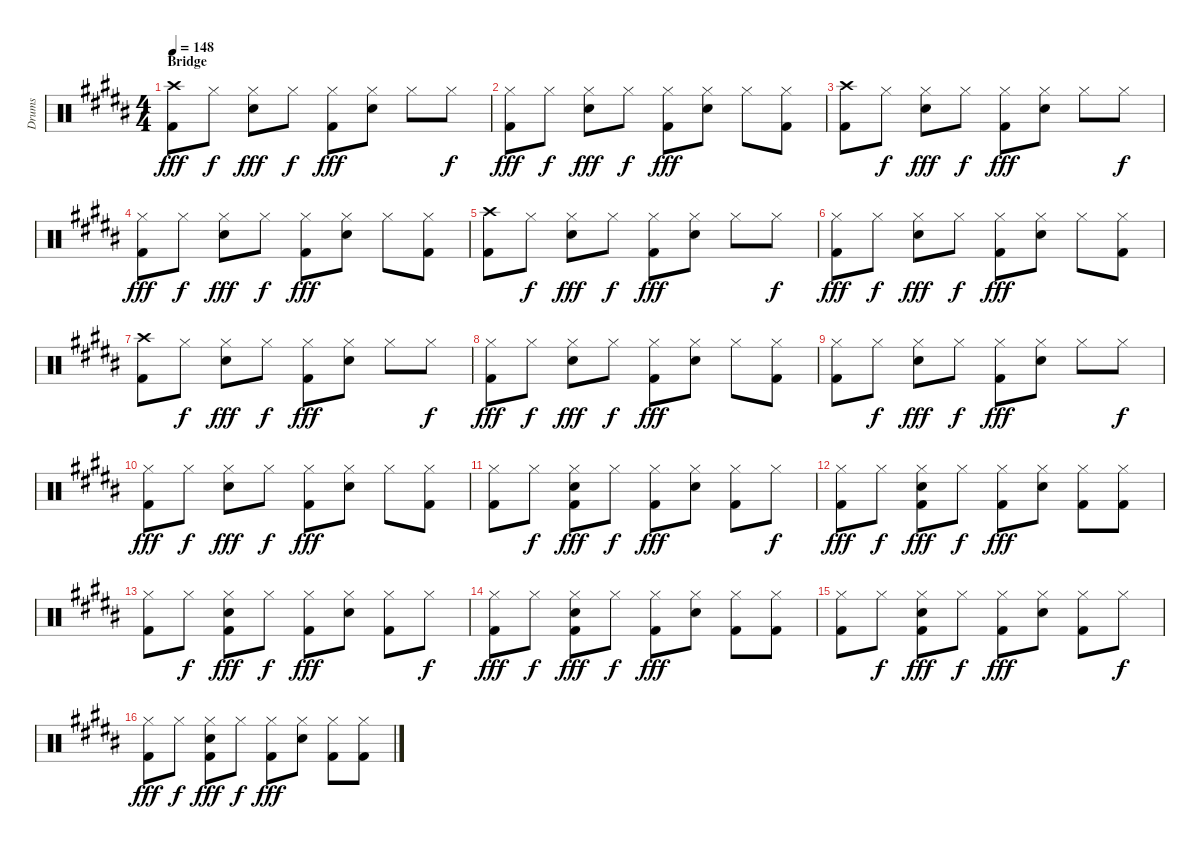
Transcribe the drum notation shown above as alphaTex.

\track ("Drums" "Drums") {instrument percussion}
\staff {score}
\articulation defaults
\ts (4 4)
\section ("" "Bridge")
\tempo 148
\clef neutral
\ks b
("Crash high (hit)" "Kick (hit) 2").8{dy fff} "Hi-Hat (closed)".8{dy f} ("Hi-Hat (closed)" "Electric Snare (hit)").8{dy fff} "Hi-Hat (closed)".8{dy f} ("Hi-Hat (closed)" "Kick (hit) 2").8{dy fff} ("Hi-Hat (closed)" "Electric Snare (hit)").8 "Hi-Hat (closed)".8 "Hi-Hat (closed)".8{dy f} |
("Hi-Hat (closed)" "Kick (hit) 2").8{dy fff} "Hi-Hat (closed)".8{dy f} ("Hi-Hat (closed)" "Electric Snare (hit)").8{dy fff} "Hi-Hat (closed)".8{dy f} ("Hi-Hat (closed)" "Kick (hit) 2").8{dy fff} ("Hi-Hat (closed)" "Electric Snare (hit)").8 "Hi-Hat (closed)".8 ("Hi-Hat (closed)" "Kick (hit) 2").8 |
("Crash high (hit)" "Kick (hit) 2").8 "Hi-Hat (closed)".8{dy f} ("Hi-Hat (closed)" "Electric Snare (hit)").8{dy fff} "Hi-Hat (closed)".8{dy f} ("Hi-Hat (closed)" "Kick (hit) 2").8{dy fff} ("Hi-Hat (closed)" "Electric Snare (hit)").8 "Hi-Hat (closed)".8 "Hi-Hat (closed)".8{dy f} |
("Hi-Hat (closed)" "Kick (hit) 2").8{dy fff} "Hi-Hat (closed)".8{dy f} ("Hi-Hat (closed)" "Electric Snare (hit)").8{dy fff} "Hi-Hat (closed)".8{dy f} ("Hi-Hat (closed)" "Kick (hit) 2").8{dy fff} ("Hi-Hat (closed)" "Electric Snare (hit)").8 "Hi-Hat (closed)".8 ("Hi-Hat (closed)" "Kick (hit) 2").8 |
("Crash high (hit)" "Kick (hit) 2").8 "Hi-Hat (closed)".8{dy f} ("Hi-Hat (closed)" "Electric Snare (hit)").8{dy fff} "Hi-Hat (closed)".8{dy f} ("Hi-Hat (closed)" "Kick (hit) 2").8{dy fff} ("Hi-Hat (closed)" "Electric Snare (hit)").8 "Hi-Hat (closed)".8 "Hi-Hat (closed)".8{dy f} |
("Hi-Hat (closed)" "Kick (hit) 2").8{dy fff} "Hi-Hat (closed)".8{dy f} ("Hi-Hat (closed)" "Electric Snare (hit)").8{dy fff} "Hi-Hat (closed)".8{dy f} ("Hi-Hat (closed)" "Kick (hit) 2").8{dy fff} ("Hi-Hat (closed)" "Electric Snare (hit)").8 "Hi-Hat (closed)".8 ("Hi-Hat (closed)" "Kick (hit) 2").8 |
("Crash high (hit)" "Kick (hit) 2").8 "Hi-Hat (closed)".8{dy f} ("Hi-Hat (closed)" "Electric Snare (hit)").8{dy fff} "Hi-Hat (closed)".8{dy f} ("Hi-Hat (closed)" "Kick (hit) 2").8{dy fff} ("Hi-Hat (closed)" "Electric Snare (hit)").8 "Hi-Hat (closed)".8 "Hi-Hat (closed)".8{dy f} |
("Hi-Hat (closed)" "Kick (hit) 2").8{dy fff} "Hi-Hat (closed)".8{dy f} ("Hi-Hat (closed)" "Electric Snare (hit)").8{dy fff} "Hi-Hat (closed)".8{dy f} ("Hi-Hat (closed)" "Kick (hit) 2").8{dy fff} ("Hi-Hat (closed)" "Electric Snare (hit)").8 "Hi-Hat (closed)".8 ("Hi-Hat (closed)" "Kick (hit) 2").8 |
("Hi-Hat (closed)" "Kick (hit) 2").8 "Hi-Hat (closed)".8{dy f} ("Hi-Hat (closed)" "Electric Snare (hit)").8{dy fff} "Hi-Hat (closed)".8{dy f} ("Hi-Hat (closed)" "Kick (hit) 2").8{dy fff} ("Hi-Hat (closed)" "Electric Snare (hit)").8 "Hi-Hat (closed)".8 "Hi-Hat (closed)".8{dy f} |
("Hi-Hat (closed)" "Kick (hit) 2").8{dy fff} "Hi-Hat (closed)".8{dy f} ("Hi-Hat (closed)" "Electric Snare (hit)").8{dy fff} "Hi-Hat (closed)".8{dy f} ("Hi-Hat (closed)" "Kick (hit) 2").8{dy fff} ("Hi-Hat (closed)" "Electric Snare (hit)").8 "Hi-Hat (closed)".8 ("Hi-Hat (closed)" "Kick (hit) 2").8 |
("Hi-Hat (closed)" "Kick (hit) 2").8 "Hi-Hat (closed)".8{dy f} ("Hi-Hat (closed)" "Electric Snare (hit)" "Kick (hit) 2").8{dy fff} "Hi-Hat (closed)".8{dy f} ("Hi-Hat (closed)" "Kick (hit) 2").8{dy fff} ("Hi-Hat (closed)" "Electric Snare (hit)").8 ("Hi-Hat (closed)" "Kick (hit) 2").8 "Hi-Hat (closed)".8{dy f} |
("Hi-Hat (closed)" "Kick (hit) 2").8{dy fff} "Hi-Hat (closed)".8{dy f} ("Hi-Hat (closed)" "Electric Snare (hit)" "Kick (hit) 2").8{dy fff} "Hi-Hat (closed)".8{dy f} ("Hi-Hat (closed)" "Kick (hit) 2").8{dy fff} ("Hi-Hat (closed)" "Electric Snare (hit)").8 ("Hi-Hat (closed)" "Kick (hit) 2").8 ("Hi-Hat (closed)" "Kick (hit) 2").8 |
("Hi-Hat (closed)" "Kick (hit) 2").8 "Hi-Hat (closed)".8{dy f} ("Hi-Hat (closed)" "Electric Snare (hit)" "Kick (hit) 2").8{dy fff} "Hi-Hat (closed)".8{dy f} ("Hi-Hat (closed)" "Kick (hit) 2").8{dy fff} ("Hi-Hat (closed)" "Electric Snare (hit)").8 ("Hi-Hat (closed)" "Kick (hit) 2").8 "Hi-Hat (closed)".8{dy f} |
("Hi-Hat (closed)" "Kick (hit) 2").8{dy fff} "Hi-Hat (closed)".8{dy f} ("Hi-Hat (closed)" "Electric Snare (hit)" "Kick (hit) 2").8{dy fff} "Hi-Hat (closed)".8{dy f} ("Hi-Hat (closed)" "Kick (hit) 2").8{dy fff} ("Hi-Hat (closed)" "Electric Snare (hit)").8 ("Hi-Hat (closed)" "Kick (hit) 2").8 ("Hi-Hat (closed)" "Kick (hit) 2").8 |
("Hi-Hat (closed)" "Kick (hit) 2").8 "Hi-Hat (closed)".8{dy f} ("Hi-Hat (closed)" "Electric Snare (hit)" "Kick (hit) 2").8{dy fff} "Hi-Hat (closed)".8{dy f} ("Hi-Hat (closed)" "Kick (hit) 2").8{dy fff} ("Hi-Hat (closed)" "Electric Snare (hit)").8 ("Hi-Hat (closed)" "Kick (hit) 2").8 "Hi-Hat (closed)".8{dy f} |
("Hi-Hat (closed)" "Kick (hit) 2").8{dy fff} "Hi-Hat (closed)".8{dy f} ("Hi-Hat (closed)" "Electric Snare (hit)" "Kick (hit) 2").8{dy fff} "Hi-Hat (closed)".8{dy f} ("Hi-Hat (closed)" "Kick (hit) 2").8{dy fff} ("Hi-Hat (closed)" "Electric Snare (hit)").8 ("Hi-Hat (closed)" "Kick (hit) 2").8 ("Hi-Hat (closed)" "Kick (hit) 2").8
